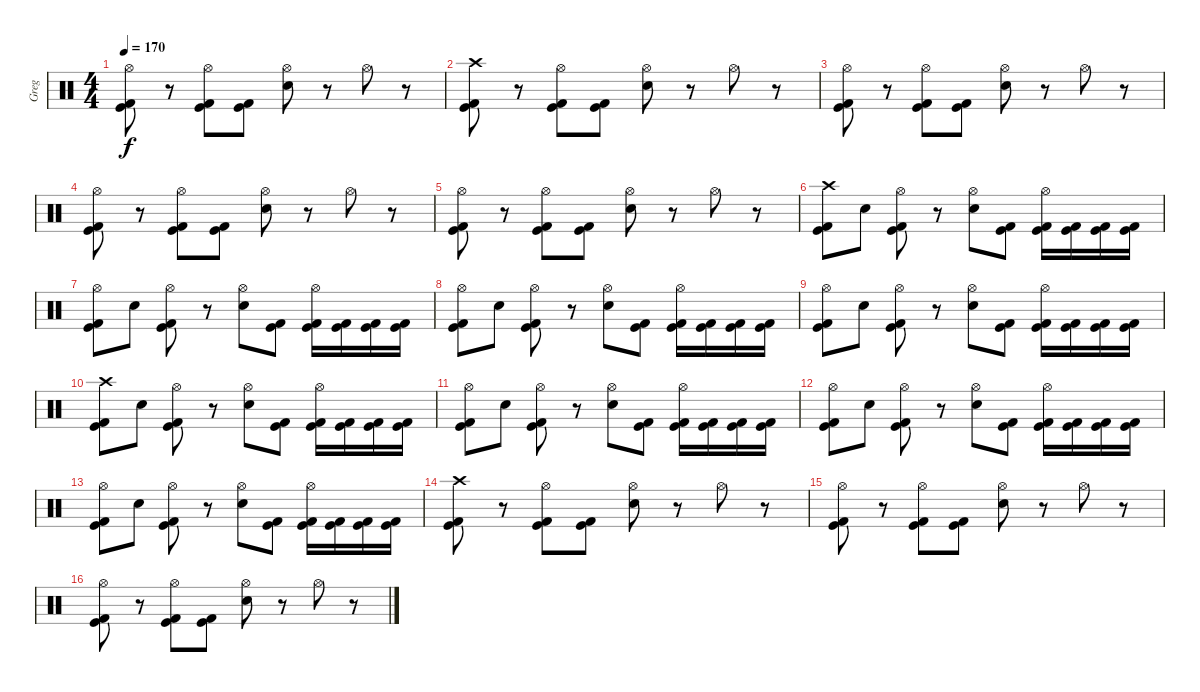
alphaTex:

\track ("Greg" "Greg") {instrument percussion}
\staff {score}
\articulation defaults
\ts (4 4)
\tempo 170
\clef neutral
\ks c
("Hi-Hat (open)" "Kick (hit)" "Kick (hit) 2").8{dy f} r.8 ("Hi-Hat (open)" "Kick (hit)" "Kick (hit) 2").8 ("Kick (hit)" "Kick (hit) 2").8 ("Hi-Hat (open)" "Snare (hit) 2").8 r.8 "Hi-Hat (open)".8 r.8 |
("Crash high (hit)" "Kick (hit)" "Kick (hit) 2").8 r.8 ("Hi-Hat (open)" "Kick (hit)" "Kick (hit) 2").8 ("Kick (hit)" "Kick (hit) 2").8 ("Hi-Hat (open)" "Snare (hit) 2").8 r.8 "Hi-Hat (open)".8 r.8 |
("Hi-Hat (open)" "Kick (hit)" "Kick (hit) 2").8 r.8 ("Hi-Hat (open)" "Kick (hit)" "Kick (hit) 2").8 ("Kick (hit)" "Kick (hit) 2").8 ("Hi-Hat (open)" "Snare (hit) 2").8 r.8 "Hi-Hat (open)".8 r.8 |
("Hi-Hat (open)" "Kick (hit)" "Kick (hit) 2").8 r.8 ("Hi-Hat (open)" "Kick (hit)" "Kick (hit) 2").8 ("Kick (hit)" "Kick (hit) 2").8 ("Hi-Hat (open)" "Snare (hit) 2").8 r.8 "Hi-Hat (open)".8 r.8 |
("Hi-Hat (open)" "Kick (hit)" "Kick (hit) 2").8 r.8 ("Hi-Hat (open)" "Kick (hit)" "Kick (hit) 2").8 ("Kick (hit)" "Kick (hit) 2").8 ("Hi-Hat (open)" "Snare (hit) 2").8 r.8 "Hi-Hat (open)".8 r.8 |
("Crash high (hit)" "Kick (hit)" "Kick (hit) 2").8 "Snare (hit) 2".8 ("Hi-Hat (open)" "Kick (hit)" "Kick (hit) 2").8 r.8 ("Hi-Hat (open)" "Snare (hit) 2").8 ("Kick (hit)" "Kick (hit) 2").8 ("Hi-Hat (open)" "Kick (hit)" "Kick (hit) 2").16 ("Kick (hit)" "Kick (hit) 2").16 ("Kick (hit)" "Kick (hit) 2").16 ("Kick (hit)" "Kick (hit) 2").16 |
("Hi-Hat (open)" "Kick (hit)" "Kick (hit) 2").8 "Snare (hit) 2".8 ("Hi-Hat (open)" "Kick (hit)" "Kick (hit) 2").8 r.8 ("Hi-Hat (open)" "Snare (hit) 2").8 ("Kick (hit)" "Kick (hit) 2").8 ("Hi-Hat (open)" "Kick (hit)" "Kick (hit) 2").16 ("Kick (hit)" "Kick (hit) 2").16 ("Kick (hit)" "Kick (hit) 2").16 ("Kick (hit)" "Kick (hit) 2").16 |
("Hi-Hat (open)" "Kick (hit)" "Kick (hit) 2").8 "Snare (hit) 2".8 ("Hi-Hat (open)" "Kick (hit)" "Kick (hit) 2").8 r.8 ("Hi-Hat (open)" "Snare (hit) 2").8 ("Kick (hit)" "Kick (hit) 2").8 ("Hi-Hat (open)" "Kick (hit)" "Kick (hit) 2").16 ("Kick (hit)" "Kick (hit) 2").16 ("Kick (hit)" "Kick (hit) 2").16 ("Kick (hit)" "Kick (hit) 2").16 |
("Hi-Hat (open)" "Kick (hit)" "Kick (hit) 2").8 "Snare (hit) 2".8 ("Hi-Hat (open)" "Kick (hit)" "Kick (hit) 2").8 r.8 ("Hi-Hat (open)" "Snare (hit) 2").8 ("Kick (hit)" "Kick (hit) 2").8 ("Hi-Hat (open)" "Kick (hit)" "Kick (hit) 2").16 ("Kick (hit)" "Kick (hit) 2").16 ("Kick (hit)" "Kick (hit) 2").16 ("Kick (hit)" "Kick (hit) 2").16 |
("Crash high (hit)" "Kick (hit)" "Kick (hit) 2").8 "Snare (hit) 2".8 ("Hi-Hat (open)" "Kick (hit)" "Kick (hit) 2").8 r.8 ("Hi-Hat (open)" "Snare (hit) 2").8 ("Kick (hit)" "Kick (hit) 2").8 ("Hi-Hat (open)" "Kick (hit)" "Kick (hit) 2").16 ("Kick (hit)" "Kick (hit) 2").16 ("Kick (hit)" "Kick (hit) 2").16 ("Kick (hit)" "Kick (hit) 2").16 |
("Hi-Hat (open)" "Kick (hit)" "Kick (hit) 2").8 "Snare (hit) 2".8 ("Hi-Hat (open)" "Kick (hit)" "Kick (hit) 2").8 r.8 ("Hi-Hat (open)" "Snare (hit) 2").8 ("Kick (hit)" "Kick (hit) 2").8 ("Hi-Hat (open)" "Kick (hit)" "Kick (hit) 2").16 ("Kick (hit)" "Kick (hit) 2").16 ("Kick (hit)" "Kick (hit) 2").16 ("Kick (hit)" "Kick (hit) 2").16 |
("Hi-Hat (open)" "Kick (hit)" "Kick (hit) 2").8 "Snare (hit) 2".8 ("Hi-Hat (open)" "Kick (hit)" "Kick (hit) 2").8 r.8 ("Hi-Hat (open)" "Snare (hit) 2").8 ("Kick (hit)" "Kick (hit) 2").8 ("Hi-Hat (open)" "Kick (hit)" "Kick (hit) 2").16 ("Kick (hit)" "Kick (hit) 2").16 ("Kick (hit)" "Kick (hit) 2").16 ("Kick (hit)" "Kick (hit) 2").16 |
("Hi-Hat (open)" "Kick (hit)" "Kick (hit) 2").8 "Snare (hit) 2".8 ("Hi-Hat (open)" "Kick (hit)" "Kick (hit) 2").8 r.8 ("Hi-Hat (open)" "Snare (hit) 2").8 ("Kick (hit)" "Kick (hit) 2").8 ("Hi-Hat (open)" "Kick (hit)" "Kick (hit) 2").16 ("Kick (hit)" "Kick (hit) 2").16 ("Kick (hit)" "Kick (hit) 2").16 ("Kick (hit)" "Kick (hit) 2").16 |
("Crash high (hit)" "Kick (hit)" "Kick (hit) 2").8 r.8 ("Hi-Hat (open)" "Kick (hit)" "Kick (hit) 2").8 ("Kick (hit)" "Kick (hit) 2").8 ("Hi-Hat (open)" "Snare (hit) 2").8 r.8 "Hi-Hat (open)".8 r.8 |
("Hi-Hat (open)" "Kick (hit)" "Kick (hit) 2").8 r.8 ("Hi-Hat (open)" "Kick (hit)" "Kick (hit) 2").8 ("Kick (hit)" "Kick (hit) 2").8 ("Hi-Hat (open)" "Snare (hit) 2").8 r.8 "Hi-Hat (open)".8 r.8 |
("Hi-Hat (open)" "Kick (hit)" "Kick (hit) 2").8 r.8 ("Hi-Hat (open)" "Kick (hit)" "Kick (hit) 2").8 ("Kick (hit)" "Kick (hit) 2").8 ("Hi-Hat (open)" "Snare (hit) 2").8 r.8 "Hi-Hat (open)".8 r.8
